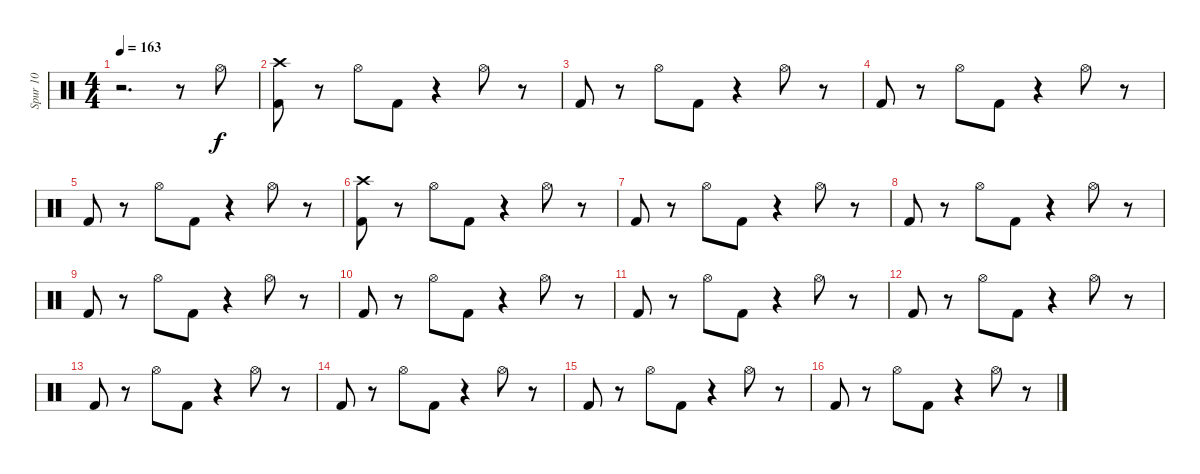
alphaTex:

\track ("Spur 10" "Spur 10") {instrument percussion}
\staff {score}
\articulation defaults
\ts (4 4)
\tempo 163
\clef neutral
\ks c
r.2{d dy f} r.8 "Hi-Hat (open)".8 |
("Kick (hit) 2" "Crash high (hit)").8 r.8 "Hi-Hat (open)".8 "Kick (hit) 2".8 r.4 "Hi-Hat (open)".8 r.8 |
"Kick (hit) 2".8 r.8 "Hi-Hat (open)".8 "Kick (hit) 2".8 r.4 "Hi-Hat (open)".8 r.8 |
"Kick (hit) 2".8 r.8 "Hi-Hat (open)".8 "Kick (hit) 2".8 r.4 "Hi-Hat (open)".8 r.8 |
"Kick (hit) 2".8 r.8 "Hi-Hat (open)".8 "Kick (hit) 2".8 r.4 "Hi-Hat (open)".8 r.8 |
("Kick (hit) 2" "Crash high (hit)").8 r.8 "Hi-Hat (open)".8 "Kick (hit) 2".8 r.4 "Hi-Hat (open)".8 r.8 |
"Kick (hit) 2".8 r.8 "Hi-Hat (open)".8 "Kick (hit) 2".8 r.4 "Hi-Hat (open)".8 r.8 |
"Kick (hit) 2".8 r.8 "Hi-Hat (open)".8 "Kick (hit) 2".8 r.4 "Hi-Hat (open)".8 r.8 |
"Kick (hit) 2".8 r.8 "Hi-Hat (open)".8 "Kick (hit) 2".8 r.4 "Hi-Hat (open)".8 r.8 |
"Kick (hit) 2".8 r.8 "Hi-Hat (open)".8 "Kick (hit) 2".8 r.4 "Hi-Hat (open)".8 r.8 |
"Kick (hit) 2".8 r.8 "Hi-Hat (open)".8 "Kick (hit) 2".8 r.4 "Hi-Hat (open)".8 r.8 |
"Kick (hit) 2".8 r.8 "Hi-Hat (open)".8 "Kick (hit) 2".8 r.4 "Hi-Hat (open)".8 r.8 |
"Kick (hit) 2".8 r.8 "Hi-Hat (open)".8 "Kick (hit) 2".8 r.4 "Hi-Hat (open)".8 r.8 |
"Kick (hit) 2".8 r.8 "Hi-Hat (open)".8 "Kick (hit) 2".8 r.4 "Hi-Hat (open)".8 r.8 |
"Kick (hit) 2".8 r.8 "Hi-Hat (open)".8 "Kick (hit) 2".8 r.4 "Hi-Hat (open)".8 r.8 |
"Kick (hit) 2".8 r.8 "Hi-Hat (open)".8 "Kick (hit) 2".8 r.4 "Hi-Hat (open)".8 r.8
